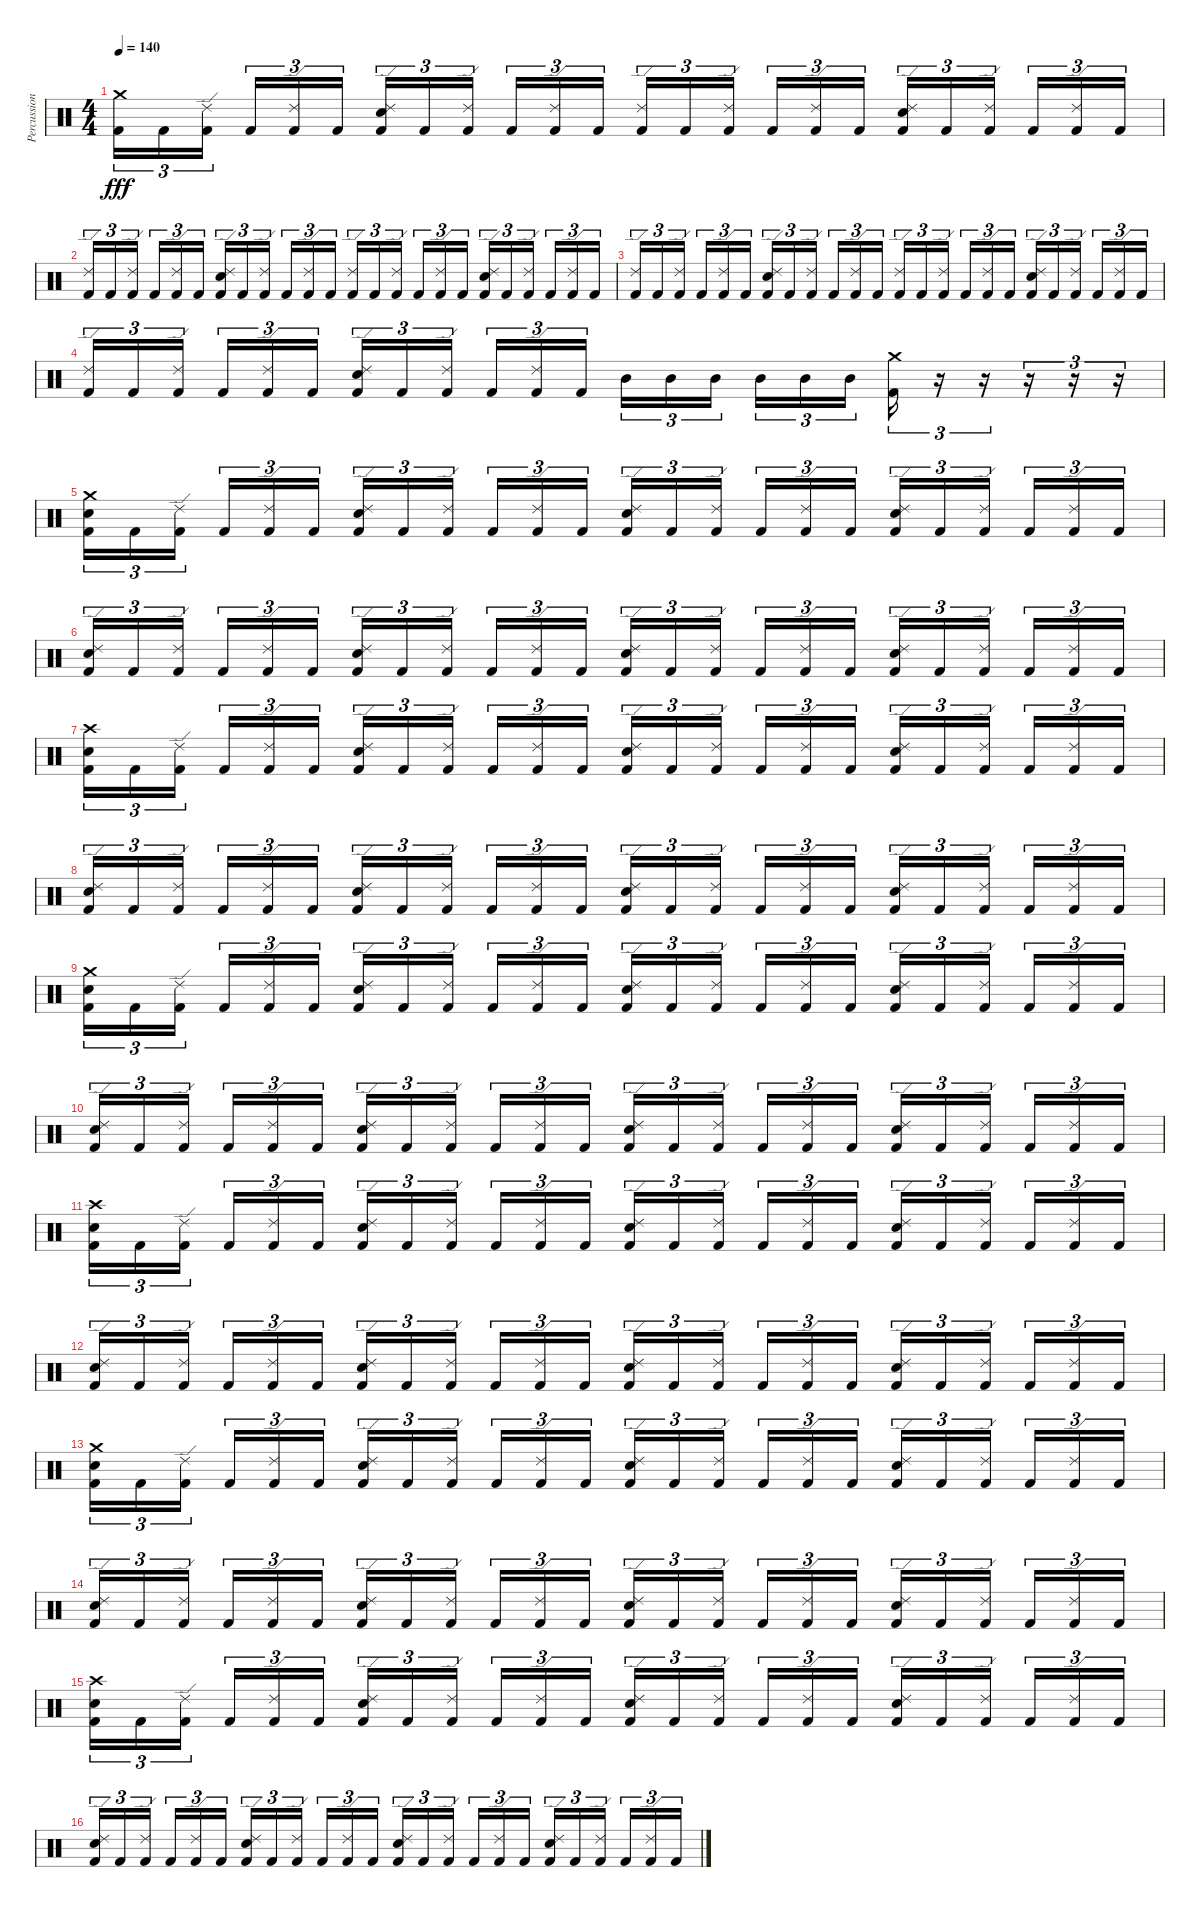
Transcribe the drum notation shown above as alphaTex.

\track ("Percussions" "Percussion") {instrument percussion}
\staff {score}
\articulation defaults
\ts (4 4)
\tempo 140
\clef neutral
\ks c
("Crash medium (hit)" "Kick (hit) 2").16{tu (3 2) dy fff} "Kick (hit) 2".16{tu (3 2)} ("Ride (edge) 2" "Kick (hit) 2").16{tu (3 2) beam splitsecondary} "Kick (hit) 2".16{tu (3 2)} ("Ride (edge) 2" "Kick (hit) 2").16{tu (3 2)} "Kick (hit) 2".16{tu (3 2)} ("Ride (edge) 2" "Snare (hit) 2" "Kick (hit) 2").16{tu (3 2)} "Kick (hit) 2".16{tu (3 2)} ("Ride (edge) 2" "Kick (hit) 2").16{tu (3 2) beam splitsecondary} "Kick (hit) 2".16{tu (3 2)} ("Ride (edge) 2" "Kick (hit) 2").16{tu (3 2)} "Kick (hit) 2".16{tu (3 2)} ("Ride (edge) 2" "Kick (hit) 2").16{tu (3 2)} "Kick (hit) 2".16{tu (3 2)} ("Ride (edge) 2" "Kick (hit) 2").16{tu (3 2) beam splitsecondary} "Kick (hit) 2".16{tu (3 2)} ("Ride (edge) 2" "Kick (hit) 2").16{tu (3 2)} "Kick (hit) 2".16{tu (3 2)} ("Ride (edge) 2" "Snare (hit) 2" "Kick (hit) 2").16{tu (3 2)} "Kick (hit) 2".16{tu (3 2)} ("Ride (edge) 2" "Kick (hit) 2").16{tu (3 2) beam splitsecondary} "Kick (hit) 2".16{tu (3 2)} ("Ride (edge) 2" "Kick (hit) 2").16{tu (3 2)} "Kick (hit) 2".16{tu (3 2)} |
("Ride (edge) 2" "Kick (hit) 2").16{tu (3 2)} "Kick (hit) 2".16{tu (3 2)} ("Ride (edge) 2" "Kick (hit) 2").16{tu (3 2) beam splitsecondary} "Kick (hit) 2".16{tu (3 2)} ("Ride (edge) 2" "Kick (hit) 2").16{tu (3 2)} "Kick (hit) 2".16{tu (3 2)} ("Ride (edge) 2" "Snare (hit) 2" "Kick (hit) 2").16{tu (3 2)} "Kick (hit) 2".16{tu (3 2)} ("Ride (edge) 2" "Kick (hit) 2").16{tu (3 2) beam splitsecondary} "Kick (hit) 2".16{tu (3 2)} ("Ride (edge) 2" "Kick (hit) 2").16{tu (3 2)} "Kick (hit) 2".16{tu (3 2)} ("Ride (edge) 2" "Kick (hit) 2").16{tu (3 2)} "Kick (hit) 2".16{tu (3 2)} ("Ride (edge) 2" "Kick (hit) 2").16{tu (3 2) beam splitsecondary} "Kick (hit) 2".16{tu (3 2)} ("Ride (edge) 2" "Kick (hit) 2").16{tu (3 2)} "Kick (hit) 2".16{tu (3 2)} ("Ride (edge) 2" "Snare (hit) 2" "Kick (hit) 2").16{tu (3 2)} "Kick (hit) 2".16{tu (3 2)} ("Ride (edge) 2" "Kick (hit) 2").16{tu (3 2) beam splitsecondary} "Kick (hit) 2".16{tu (3 2)} ("Ride (edge) 2" "Kick (hit) 2").16{tu (3 2)} "Kick (hit) 2".16{tu (3 2)} |
("Ride (edge) 2" "Kick (hit) 2").16{tu (3 2)} "Kick (hit) 2".16{tu (3 2)} ("Ride (edge) 2" "Kick (hit) 2").16{tu (3 2) beam splitsecondary} "Kick (hit) 2".16{tu (3 2)} ("Ride (edge) 2" "Kick (hit) 2").16{tu (3 2)} "Kick (hit) 2".16{tu (3 2)} ("Ride (edge) 2" "Snare (hit) 2" "Kick (hit) 2").16{tu (3 2)} "Kick (hit) 2".16{tu (3 2)} ("Ride (edge) 2" "Kick (hit) 2").16{tu (3 2) beam splitsecondary} "Kick (hit) 2".16{tu (3 2)} ("Ride (edge) 2" "Kick (hit) 2").16{tu (3 2)} "Kick (hit) 2".16{tu (3 2)} ("Ride (edge) 2" "Kick (hit) 2").16{tu (3 2)} "Kick (hit) 2".16{tu (3 2)} ("Ride (edge) 2" "Kick (hit) 2").16{tu (3 2) beam splitsecondary} "Kick (hit) 2".16{tu (3 2)} ("Ride (edge) 2" "Kick (hit) 2").16{tu (3 2)} "Kick (hit) 2".16{tu (3 2)} ("Ride (edge) 2" "Snare (hit) 2" "Kick (hit) 2").16{tu (3 2)} "Kick (hit) 2".16{tu (3 2)} ("Ride (edge) 2" "Kick (hit) 2").16{tu (3 2) beam splitsecondary} "Kick (hit) 2".16{tu (3 2)} ("Ride (edge) 2" "Kick (hit) 2").16{tu (3 2)} "Kick (hit) 2".16{tu (3 2)} |
("Ride (edge) 2" "Kick (hit) 2").16{tu (3 2)} "Kick (hit) 2".16{tu (3 2)} ("Ride (edge) 2" "Kick (hit) 2").16{tu (3 2) beam splitsecondary} "Kick (hit) 2".16{tu (3 2)} ("Ride (edge) 2" "Kick (hit) 2").16{tu (3 2)} "Kick (hit) 2".16{tu (3 2)} ("Ride (edge) 2" "Snare (hit) 2" "Kick (hit) 2").16{tu (3 2)} "Kick (hit) 2".16{tu (3 2)} ("Ride (edge) 2" "Kick (hit) 2").16{tu (3 2) beam splitsecondary} "Kick (hit) 2".16{tu (3 2)} ("Ride (edge) 2" "Kick (hit) 2").16{tu (3 2)} "Kick (hit) 2".16{tu (3 2)} "Mid Tom (hit)".16{tu (3 2)} "Mid Tom (hit)".16{tu (3 2)} "Mid Tom (hit)".16{tu (3 2) beam splitsecondary} "Mid Tom (hit)".16{tu (3 2)} "Mid Tom (hit)".16{tu (3 2)} "Mid Tom (hit)".16{tu (3 2)} ("Crash medium (hit)" "Kick (hit) 2").16{tu (3 2)} r.16{tu (3 2)} r.16{tu (3 2)} r.16{tu (3 2)} r.16{tu (3 2)} r.16{tu (3 2)} |
("Crash medium (hit)" "Snare (hit) 2" "Kick (hit) 2").16{tu (3 2)} "Kick (hit) 2".16{tu (3 2)} ("Ride (edge) 2" "Kick (hit) 2").16{tu (3 2) beam splitsecondary} "Kick (hit) 2".16{tu (3 2)} ("Ride (edge) 2" "Kick (hit) 2").16{tu (3 2)} "Kick (hit) 2".16{tu (3 2)} ("Ride (edge) 2" "Snare (hit) 2" "Kick (hit) 2").16{tu (3 2)} "Kick (hit) 2".16{tu (3 2)} ("Ride (edge) 2" "Kick (hit) 2").16{tu (3 2) beam splitsecondary} "Kick (hit) 2".16{tu (3 2)} ("Ride (edge) 2" "Kick (hit) 2").16{tu (3 2)} "Kick (hit) 2".16{tu (3 2)} ("Ride (edge) 2" "Snare (hit) 2" "Kick (hit) 2").16{tu (3 2)} "Kick (hit) 2".16{tu (3 2)} ("Ride (edge) 2" "Kick (hit) 2").16{tu (3 2) beam splitsecondary} "Kick (hit) 2".16{tu (3 2)} ("Ride (edge) 2" "Kick (hit) 2").16{tu (3 2)} "Kick (hit) 2".16{tu (3 2)} ("Ride (edge) 2" "Snare (hit) 2" "Kick (hit) 2").16{tu (3 2)} "Kick (hit) 2".16{tu (3 2)} ("Ride (edge) 2" "Kick (hit) 2").16{tu (3 2) beam splitsecondary} "Kick (hit) 2".16{tu (3 2)} ("Ride (edge) 2" "Kick (hit) 2").16{tu (3 2)} "Kick (hit) 2".16{tu (3 2)} |
("Ride (edge) 2" "Snare (hit) 2" "Kick (hit) 2").16{tu (3 2)} "Kick (hit) 2".16{tu (3 2)} ("Ride (edge) 2" "Kick (hit) 2").16{tu (3 2) beam splitsecondary} "Kick (hit) 2".16{tu (3 2)} ("Ride (edge) 2" "Kick (hit) 2").16{tu (3 2)} "Kick (hit) 2".16{tu (3 2)} ("Ride (edge) 2" "Snare (hit) 2" "Kick (hit) 2").16{tu (3 2)} "Kick (hit) 2".16{tu (3 2)} ("Ride (edge) 2" "Kick (hit) 2").16{tu (3 2) beam splitsecondary} "Kick (hit) 2".16{tu (3 2)} ("Ride (edge) 2" "Kick (hit) 2").16{tu (3 2)} "Kick (hit) 2".16{tu (3 2)} ("Ride (edge) 2" "Snare (hit) 2" "Kick (hit) 2").16{tu (3 2)} "Kick (hit) 2".16{tu (3 2)} ("Ride (edge) 2" "Kick (hit) 2").16{tu (3 2) beam splitsecondary} "Kick (hit) 2".16{tu (3 2)} ("Ride (edge) 2" "Kick (hit) 2").16{tu (3 2)} "Kick (hit) 2".16{tu (3 2)} ("Ride (edge) 2" "Snare (hit) 2" "Kick (hit) 2").16{tu (3 2)} "Kick (hit) 2".16{tu (3 2)} ("Ride (edge) 2" "Kick (hit) 2").16{tu (3 2) beam splitsecondary} "Kick (hit) 2".16{tu (3 2)} ("Ride (edge) 2" "Kick (hit) 2").16{tu (3 2)} "Kick (hit) 2".16{tu (3 2)} |
("Crash high (hit)" "Snare (hit) 2" "Kick (hit) 2").16{tu (3 2)} "Kick (hit) 2".16{tu (3 2)} ("Ride (edge) 2" "Kick (hit) 2").16{tu (3 2) beam splitsecondary} "Kick (hit) 2".16{tu (3 2)} ("Ride (edge) 2" "Kick (hit) 2").16{tu (3 2)} "Kick (hit) 2".16{tu (3 2)} ("Ride (edge) 2" "Snare (hit) 2" "Kick (hit) 2").16{tu (3 2)} "Kick (hit) 2".16{tu (3 2)} ("Ride (edge) 2" "Kick (hit) 2").16{tu (3 2) beam splitsecondary} "Kick (hit) 2".16{tu (3 2)} ("Ride (edge) 2" "Kick (hit) 2").16{tu (3 2)} "Kick (hit) 2".16{tu (3 2)} ("Ride (edge) 2" "Snare (hit) 2" "Kick (hit) 2").16{tu (3 2)} "Kick (hit) 2".16{tu (3 2)} ("Ride (edge) 2" "Kick (hit) 2").16{tu (3 2) beam splitsecondary} "Kick (hit) 2".16{tu (3 2)} ("Ride (edge) 2" "Kick (hit) 2").16{tu (3 2)} "Kick (hit) 2".16{tu (3 2)} ("Ride (edge) 2" "Snare (hit) 2" "Kick (hit) 2").16{tu (3 2)} "Kick (hit) 2".16{tu (3 2)} ("Ride (edge) 2" "Kick (hit) 2").16{tu (3 2) beam splitsecondary} "Kick (hit) 2".16{tu (3 2)} ("Ride (edge) 2" "Kick (hit) 2").16{tu (3 2)} "Kick (hit) 2".16{tu (3 2)} |
("Ride (edge) 2" "Snare (hit) 2" "Kick (hit) 2").16{tu (3 2)} "Kick (hit) 2".16{tu (3 2)} ("Ride (edge) 2" "Kick (hit) 2").16{tu (3 2) beam splitsecondary} "Kick (hit) 2".16{tu (3 2)} ("Ride (edge) 2" "Kick (hit) 2").16{tu (3 2)} "Kick (hit) 2".16{tu (3 2)} ("Ride (edge) 2" "Snare (hit) 2" "Kick (hit) 2").16{tu (3 2)} "Kick (hit) 2".16{tu (3 2)} ("Ride (edge) 2" "Kick (hit) 2").16{tu (3 2) beam splitsecondary} "Kick (hit) 2".16{tu (3 2)} ("Ride (edge) 2" "Kick (hit) 2").16{tu (3 2)} "Kick (hit) 2".16{tu (3 2)} ("Ride (edge) 2" "Snare (hit) 2" "Kick (hit) 2").16{tu (3 2)} "Kick (hit) 2".16{tu (3 2)} ("Ride (edge) 2" "Kick (hit) 2").16{tu (3 2) beam splitsecondary} "Kick (hit) 2".16{tu (3 2)} ("Ride (edge) 2" "Kick (hit) 2").16{tu (3 2)} "Kick (hit) 2".16{tu (3 2)} ("Ride (edge) 2" "Snare (hit) 2" "Kick (hit) 2").16{tu (3 2)} "Kick (hit) 2".16{tu (3 2)} ("Ride (edge) 2" "Kick (hit) 2").16{tu (3 2) beam splitsecondary} "Kick (hit) 2".16{tu (3 2)} ("Ride (edge) 2" "Kick (hit) 2").16{tu (3 2)} "Kick (hit) 2".16{tu (3 2)} |
("Crash medium (hit)" "Snare (hit) 2" "Kick (hit) 2").16{tu (3 2)} "Kick (hit) 2".16{tu (3 2)} ("Ride (edge) 2" "Kick (hit) 2").16{tu (3 2) beam splitsecondary} "Kick (hit) 2".16{tu (3 2)} ("Ride (edge) 2" "Kick (hit) 2").16{tu (3 2)} "Kick (hit) 2".16{tu (3 2)} ("Ride (edge) 2" "Snare (hit) 2" "Kick (hit) 2").16{tu (3 2)} "Kick (hit) 2".16{tu (3 2)} ("Ride (edge) 2" "Kick (hit) 2").16{tu (3 2) beam splitsecondary} "Kick (hit) 2".16{tu (3 2)} ("Ride (edge) 2" "Kick (hit) 2").16{tu (3 2)} "Kick (hit) 2".16{tu (3 2)} ("Ride (edge) 2" "Snare (hit) 2" "Kick (hit) 2").16{tu (3 2)} "Kick (hit) 2".16{tu (3 2)} ("Ride (edge) 2" "Kick (hit) 2").16{tu (3 2) beam splitsecondary} "Kick (hit) 2".16{tu (3 2)} ("Ride (edge) 2" "Kick (hit) 2").16{tu (3 2)} "Kick (hit) 2".16{tu (3 2)} ("Ride (edge) 2" "Snare (hit) 2" "Kick (hit) 2").16{tu (3 2)} "Kick (hit) 2".16{tu (3 2)} ("Ride (edge) 2" "Kick (hit) 2").16{tu (3 2) beam splitsecondary} "Kick (hit) 2".16{tu (3 2)} ("Ride (edge) 2" "Kick (hit) 2").16{tu (3 2)} "Kick (hit) 2".16{tu (3 2)} |
("Ride (edge) 2" "Snare (hit) 2" "Kick (hit) 2").16{tu (3 2)} "Kick (hit) 2".16{tu (3 2)} ("Ride (edge) 2" "Kick (hit) 2").16{tu (3 2) beam splitsecondary} "Kick (hit) 2".16{tu (3 2)} ("Ride (edge) 2" "Kick (hit) 2").16{tu (3 2)} "Kick (hit) 2".16{tu (3 2)} ("Ride (edge) 2" "Snare (hit) 2" "Kick (hit) 2").16{tu (3 2)} "Kick (hit) 2".16{tu (3 2)} ("Ride (edge) 2" "Kick (hit) 2").16{tu (3 2) beam splitsecondary} "Kick (hit) 2".16{tu (3 2)} ("Ride (edge) 2" "Kick (hit) 2").16{tu (3 2)} "Kick (hit) 2".16{tu (3 2)} ("Ride (edge) 2" "Snare (hit) 2" "Kick (hit) 2").16{tu (3 2)} "Kick (hit) 2".16{tu (3 2)} ("Ride (edge) 2" "Kick (hit) 2").16{tu (3 2) beam splitsecondary} "Kick (hit) 2".16{tu (3 2)} ("Ride (edge) 2" "Kick (hit) 2").16{tu (3 2)} "Kick (hit) 2".16{tu (3 2)} ("Ride (edge) 2" "Snare (hit) 2" "Kick (hit) 2").16{tu (3 2)} "Kick (hit) 2".16{tu (3 2)} ("Ride (edge) 2" "Kick (hit) 2").16{tu (3 2) beam splitsecondary} "Kick (hit) 2".16{tu (3 2)} ("Ride (edge) 2" "Kick (hit) 2").16{tu (3 2)} "Kick (hit) 2".16{tu (3 2)} |
("Crash high (hit)" "Snare (hit) 2" "Kick (hit) 2").16{tu (3 2)} "Kick (hit) 2".16{tu (3 2)} ("Ride (edge) 2" "Kick (hit) 2").16{tu (3 2) beam splitsecondary} "Kick (hit) 2".16{tu (3 2)} ("Ride (edge) 2" "Kick (hit) 2").16{tu (3 2)} "Kick (hit) 2".16{tu (3 2)} ("Ride (edge) 2" "Snare (hit) 2" "Kick (hit) 2").16{tu (3 2)} "Kick (hit) 2".16{tu (3 2)} ("Ride (edge) 2" "Kick (hit) 2").16{tu (3 2) beam splitsecondary} "Kick (hit) 2".16{tu (3 2)} ("Ride (edge) 2" "Kick (hit) 2").16{tu (3 2)} "Kick (hit) 2".16{tu (3 2)} ("Ride (edge) 2" "Snare (hit) 2" "Kick (hit) 2").16{tu (3 2)} "Kick (hit) 2".16{tu (3 2)} ("Ride (edge) 2" "Kick (hit) 2").16{tu (3 2) beam splitsecondary} "Kick (hit) 2".16{tu (3 2)} ("Ride (edge) 2" "Kick (hit) 2").16{tu (3 2)} "Kick (hit) 2".16{tu (3 2)} ("Ride (edge) 2" "Snare (hit) 2" "Kick (hit) 2").16{tu (3 2)} "Kick (hit) 2".16{tu (3 2)} ("Ride (edge) 2" "Kick (hit) 2").16{tu (3 2) beam splitsecondary} "Kick (hit) 2".16{tu (3 2)} ("Ride (edge) 2" "Kick (hit) 2").16{tu (3 2)} "Kick (hit) 2".16{tu (3 2)} |
("Ride (edge) 2" "Snare (hit) 2" "Kick (hit) 2").16{tu (3 2)} "Kick (hit) 2".16{tu (3 2)} ("Ride (edge) 2" "Kick (hit) 2").16{tu (3 2) beam splitsecondary} "Kick (hit) 2".16{tu (3 2)} ("Ride (edge) 2" "Kick (hit) 2").16{tu (3 2)} "Kick (hit) 2".16{tu (3 2)} ("Ride (edge) 2" "Snare (hit) 2" "Kick (hit) 2").16{tu (3 2)} "Kick (hit) 2".16{tu (3 2)} ("Ride (edge) 2" "Kick (hit) 2").16{tu (3 2) beam splitsecondary} "Kick (hit) 2".16{tu (3 2)} ("Ride (edge) 2" "Kick (hit) 2").16{tu (3 2)} "Kick (hit) 2".16{tu (3 2)} ("Ride (edge) 2" "Snare (hit) 2" "Kick (hit) 2").16{tu (3 2)} "Kick (hit) 2".16{tu (3 2)} ("Ride (edge) 2" "Kick (hit) 2").16{tu (3 2) beam splitsecondary} "Kick (hit) 2".16{tu (3 2)} ("Ride (edge) 2" "Kick (hit) 2").16{tu (3 2)} "Kick (hit) 2".16{tu (3 2)} ("Ride (edge) 2" "Snare (hit) 2" "Kick (hit) 2").16{tu (3 2)} "Kick (hit) 2".16{tu (3 2)} ("Ride (edge) 2" "Kick (hit) 2").16{tu (3 2) beam splitsecondary} "Kick (hit) 2".16{tu (3 2)} ("Ride (edge) 2" "Kick (hit) 2").16{tu (3 2)} "Kick (hit) 2".16{tu (3 2)} |
("Crash medium (hit)" "Snare (hit) 2" "Kick (hit) 2").16{tu (3 2)} "Kick (hit) 2".16{tu (3 2)} ("Ride (edge) 2" "Kick (hit) 2").16{tu (3 2) beam splitsecondary} "Kick (hit) 2".16{tu (3 2)} ("Ride (edge) 2" "Kick (hit) 2").16{tu (3 2)} "Kick (hit) 2".16{tu (3 2)} ("Ride (edge) 2" "Snare (hit) 2" "Kick (hit) 2").16{tu (3 2)} "Kick (hit) 2".16{tu (3 2)} ("Ride (edge) 2" "Kick (hit) 2").16{tu (3 2) beam splitsecondary} "Kick (hit) 2".16{tu (3 2)} ("Ride (edge) 2" "Kick (hit) 2").16{tu (3 2)} "Kick (hit) 2".16{tu (3 2)} ("Ride (edge) 2" "Snare (hit) 2" "Kick (hit) 2").16{tu (3 2)} "Kick (hit) 2".16{tu (3 2)} ("Ride (edge) 2" "Kick (hit) 2").16{tu (3 2) beam splitsecondary} "Kick (hit) 2".16{tu (3 2)} ("Ride (edge) 2" "Kick (hit) 2").16{tu (3 2)} "Kick (hit) 2".16{tu (3 2)} ("Ride (edge) 2" "Snare (hit) 2" "Kick (hit) 2").16{tu (3 2)} "Kick (hit) 2".16{tu (3 2)} ("Ride (edge) 2" "Kick (hit) 2").16{tu (3 2) beam splitsecondary} "Kick (hit) 2".16{tu (3 2)} ("Ride (edge) 2" "Kick (hit) 2").16{tu (3 2)} "Kick (hit) 2".16{tu (3 2)} |
("Ride (edge) 2" "Snare (hit) 2" "Kick (hit) 2").16{tu (3 2)} "Kick (hit) 2".16{tu (3 2)} ("Ride (edge) 2" "Kick (hit) 2").16{tu (3 2) beam splitsecondary} "Kick (hit) 2".16{tu (3 2)} ("Ride (edge) 2" "Kick (hit) 2").16{tu (3 2)} "Kick (hit) 2".16{tu (3 2)} ("Ride (edge) 2" "Snare (hit) 2" "Kick (hit) 2").16{tu (3 2)} "Kick (hit) 2".16{tu (3 2)} ("Ride (edge) 2" "Kick (hit) 2").16{tu (3 2) beam splitsecondary} "Kick (hit) 2".16{tu (3 2)} ("Ride (edge) 2" "Kick (hit) 2").16{tu (3 2)} "Kick (hit) 2".16{tu (3 2)} ("Ride (edge) 2" "Snare (hit) 2" "Kick (hit) 2").16{tu (3 2)} "Kick (hit) 2".16{tu (3 2)} ("Ride (edge) 2" "Kick (hit) 2").16{tu (3 2) beam splitsecondary} "Kick (hit) 2".16{tu (3 2)} ("Ride (edge) 2" "Kick (hit) 2").16{tu (3 2)} "Kick (hit) 2".16{tu (3 2)} ("Ride (edge) 2" "Snare (hit) 2" "Kick (hit) 2").16{tu (3 2)} "Kick (hit) 2".16{tu (3 2)} ("Ride (edge) 2" "Kick (hit) 2").16{tu (3 2) beam splitsecondary} "Kick (hit) 2".16{tu (3 2)} ("Ride (edge) 2" "Kick (hit) 2").16{tu (3 2)} "Kick (hit) 2".16{tu (3 2)} |
("Crash high (hit)" "Snare (hit) 2" "Kick (hit) 2").16{tu (3 2)} "Kick (hit) 2".16{tu (3 2)} ("Ride (edge) 2" "Kick (hit) 2").16{tu (3 2) beam splitsecondary} "Kick (hit) 2".16{tu (3 2)} ("Ride (edge) 2" "Kick (hit) 2").16{tu (3 2)} "Kick (hit) 2".16{tu (3 2)} ("Ride (edge) 2" "Snare (hit) 2" "Kick (hit) 2").16{tu (3 2)} "Kick (hit) 2".16{tu (3 2)} ("Ride (edge) 2" "Kick (hit) 2").16{tu (3 2) beam splitsecondary} "Kick (hit) 2".16{tu (3 2)} ("Ride (edge) 2" "Kick (hit) 2").16{tu (3 2)} "Kick (hit) 2".16{tu (3 2)} ("Ride (edge) 2" "Snare (hit) 2" "Kick (hit) 2").16{tu (3 2)} "Kick (hit) 2".16{tu (3 2)} ("Ride (edge) 2" "Kick (hit) 2").16{tu (3 2) beam splitsecondary} "Kick (hit) 2".16{tu (3 2)} ("Ride (edge) 2" "Kick (hit) 2").16{tu (3 2)} "Kick (hit) 2".16{tu (3 2)} ("Ride (edge) 2" "Snare (hit) 2" "Kick (hit) 2").16{tu (3 2)} "Kick (hit) 2".16{tu (3 2)} ("Ride (edge) 2" "Kick (hit) 2").16{tu (3 2) beam splitsecondary} "Kick (hit) 2".16{tu (3 2)} ("Ride (edge) 2" "Kick (hit) 2").16{tu (3 2)} "Kick (hit) 2".16{tu (3 2)} |
("Ride (edge) 2" "Snare (hit) 2" "Kick (hit) 2").16{tu (3 2)} "Kick (hit) 2".16{tu (3 2)} ("Ride (edge) 2" "Kick (hit) 2").16{tu (3 2) beam splitsecondary} "Kick (hit) 2".16{tu (3 2)} ("Ride (edge) 2" "Kick (hit) 2").16{tu (3 2)} "Kick (hit) 2".16{tu (3 2)} ("Ride (edge) 2" "Snare (hit) 2" "Kick (hit) 2").16{tu (3 2)} "Kick (hit) 2".16{tu (3 2)} ("Ride (edge) 2" "Kick (hit) 2").16{tu (3 2) beam splitsecondary} "Kick (hit) 2".16{tu (3 2)} ("Ride (edge) 2" "Kick (hit) 2").16{tu (3 2)} "Kick (hit) 2".16{tu (3 2)} ("Ride (edge) 2" "Snare (hit) 2" "Kick (hit) 2").16{tu (3 2)} "Kick (hit) 2".16{tu (3 2)} ("Ride (edge) 2" "Kick (hit) 2").16{tu (3 2) beam splitsecondary} "Kick (hit) 2".16{tu (3 2)} ("Ride (edge) 2" "Kick (hit) 2").16{tu (3 2)} "Kick (hit) 2".16{tu (3 2)} ("Ride (edge) 2" "Snare (hit) 2" "Kick (hit) 2").16{tu (3 2)} "Kick (hit) 2".16{tu (3 2)} ("Ride (edge) 2" "Kick (hit) 2").16{tu (3 2) beam splitsecondary} "Kick (hit) 2".16{tu (3 2)} ("Ride (edge) 2" "Kick (hit) 2").16{tu (3 2)} "Kick (hit) 2".16{tu (3 2)}
